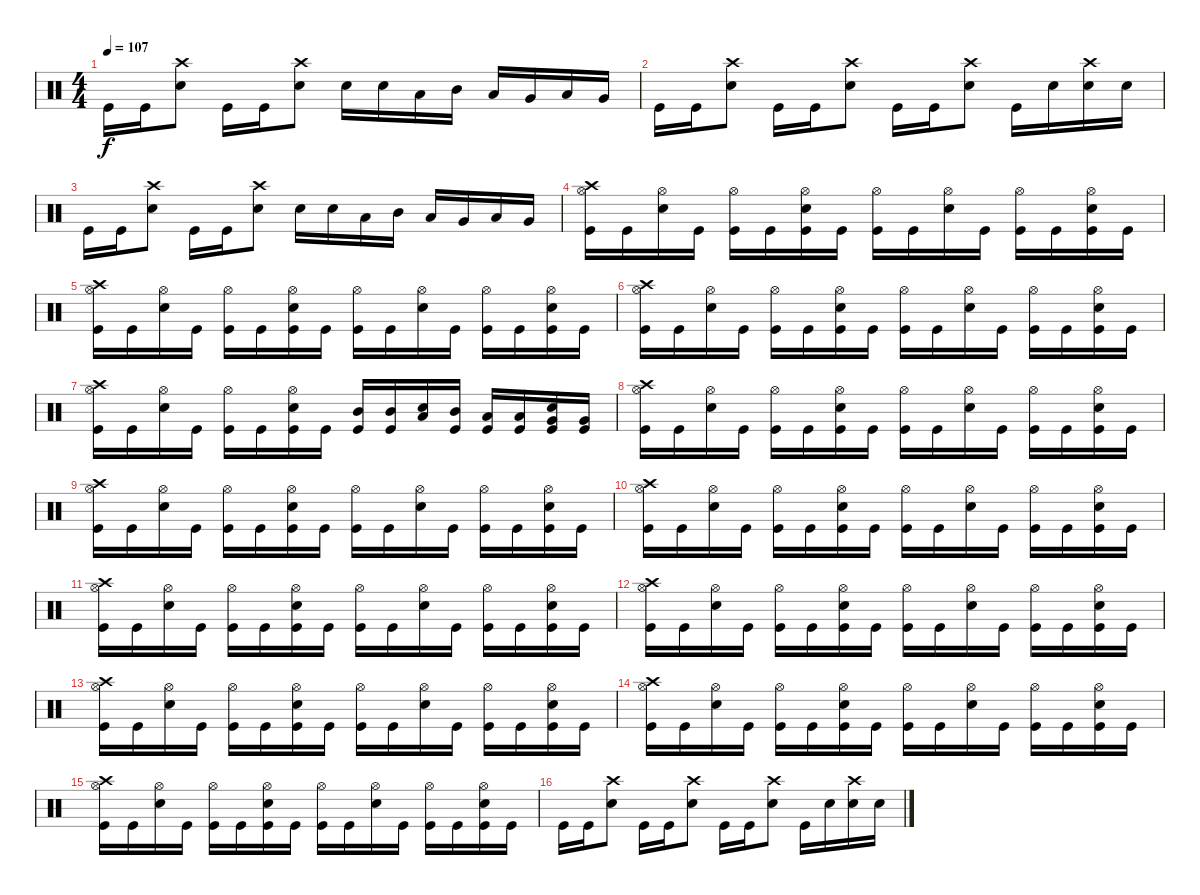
\track "" {instrument percussion}
\staff {score}
\articulation defaults
\ts (4 4)
\tempo 107
\clef neutral
\ks c "Kick (hit)".16{dy f} "Kick (hit)".16
("Crash high (hit)" "Snare (hit) 2").8 "Kick (hit)".16 "Kick (hit)".16 ("Crash high (hit)" "Snare (hit) 2").8 "Snare (hit) 2".16 "Snare (hit) 2".16 "Low Tom (hit)".16 "Mid Tom (hit)".16 "Low Tom (hit)".16 "Very Low Tom (hit)".16 "Low Tom (hit)".16 "Very Low Tom (hit)".16 |
"Kick (hit)".16 "Kick (hit)".16 ("Crash high (hit)" "Snare (hit) 2").8 "Kick (hit)".16 "Kick (hit)".16 ("Crash high (hit)" "Snare (hit) 2").8 "Kick (hit)".16 "Kick (hit)".16 ("Crash high (hit)" "Snare (hit) 2").8 "Kick (hit)".16 "Snare (hit) 2".16 ("Crash high (hit)" "Snare (hit) 2").16 "Snare (hit) 2".16 |
"Kick (hit)".16 "Kick (hit)".16 ("Crash high (hit)" "Snare (hit) 2").8 "Kick (hit)".16 "Kick (hit)".16 ("Crash high (hit)" "Snare (hit) 2").8 "Snare (hit) 2".16 "Snare (hit) 2".16 "Low Tom (hit)".16 "Mid Tom (hit)".16 "Low Tom (hit)".16 "Very Low Tom (hit)".16 "Low Tom (hit)".16 "Very Low Tom (hit)".16 |
("Hi-Hat (open)" "Crash high (hit)" "Kick (hit)").16 "Kick (hit)".16 ("Hi-Hat (open)" "Snare (hit) 2").16 "Kick (hit)".16 ("Hi-Hat (open)" "Kick (hit)").16 "Kick (hit)".16 ("Hi-Hat (open)" "Snare (hit) 2" "Kick (hit)").16 "Kick (hit)".16 ("Hi-Hat (open)" "Kick (hit)").16 "Kick (hit)".16 ("Hi-Hat (open)" "Snare (hit) 2").16 "Kick (hit)".16 ("Hi-Hat (open)" "Kick (hit)").16 "Kick (hit)".16 ("Hi-Hat (open)" "Snare (hit) 2" "Kick (hit)").16 "Kick (hit)".16 |
("Hi-Hat (open)" "Crash high (hit)" "Kick (hit)").16 "Kick (hit)".16 ("Hi-Hat (open)" "Snare (hit) 2").16 "Kick (hit)".16 ("Hi-Hat (open)" "Kick (hit)").16 "Kick (hit)".16 ("Hi-Hat (open)" "Snare (hit) 2" "Kick (hit)").16 "Kick (hit)".16 ("Hi-Hat (open)" "Kick (hit)").16 "Kick (hit)".16 ("Hi-Hat (open)" "Snare (hit) 2").16 "Kick (hit)".16 ("Hi-Hat (open)" "Kick (hit)").16 "Kick (hit)".16 ("Hi-Hat (open)" "Snare (hit) 2" "Kick (hit)").16 "Kick (hit)".16 |
("Hi-Hat (open)" "Crash high (hit)" "Kick (hit)").16 "Kick (hit)".16 ("Hi-Hat (open)" "Snare (hit) 2").16 "Kick (hit)".16 ("Hi-Hat (open)" "Kick (hit)").16 "Kick (hit)".16 ("Hi-Hat (open)" "Snare (hit) 2" "Kick (hit)").16 "Kick (hit)".16 ("Hi-Hat (open)" "Kick (hit)").16 "Kick (hit)".16 ("Hi-Hat (open)" "Snare (hit) 2").16 "Kick (hit)".16 ("Hi-Hat (open)" "Kick (hit)").16 "Kick (hit)".16 ("Hi-Hat (open)" "Snare (hit) 2" "Kick (hit)").16 "Kick (hit)".16 |
("Hi-Hat (open)" "Crash high (hit)" "Kick (hit)").16 "Kick (hit)".16 ("Hi-Hat (open)" "Snare (hit) 2").16 "Kick (hit)".16 ("Hi-Hat (open)" "Kick (hit)").16 "Kick (hit)".16 ("Hi-Hat (open)" "Snare (hit) 2" "Kick (hit)").16 "Kick (hit)".16 ("Mid Tom (hit)" "Kick (hit)").16 ("Mid Tom (hit)" "Kick (hit)").16 ("Low Tom (hit)" "Snare (hit) 2").16 ("Mid Tom (hit)" "Kick (hit)").16 ("Low Tom (hit)" "Kick (hit)").16 ("Low Tom (hit)" "Kick (hit)").16 ("Very Low Tom (hit)" "Snare (hit) 2" "Kick (hit)").16 ("Very Low Tom (hit)" "Kick (hit)").16 |
("Hi-Hat (open)" "Crash high (hit)" "Kick (hit)").16 "Kick (hit)".16 ("Hi-Hat (open)" "Snare (hit) 2").16 "Kick (hit)".16 ("Hi-Hat (open)" "Kick (hit)").16 "Kick (hit)".16 ("Hi-Hat (open)" "Snare (hit) 2" "Kick (hit)").16 "Kick (hit)".16 ("Hi-Hat (open)" "Kick (hit)").16 "Kick (hit)".16 ("Hi-Hat (open)" "Snare (hit) 2").16 "Kick (hit)".16 ("Hi-Hat (open)" "Kick (hit)").16 "Kick (hit)".16 ("Hi-Hat (open)" "Snare (hit) 2" "Kick (hit)").16 "Kick (hit)".16 |
("Hi-Hat (open)" "Crash high (hit)" "Kick (hit)").16 "Kick (hit)".16 ("Hi-Hat (open)" "Snare (hit) 2").16 "Kick (hit)".16 ("Hi-Hat (open)" "Kick (hit)").16 "Kick (hit)".16 ("Hi-Hat (open)" "Snare (hit) 2" "Kick (hit)").16 "Kick (hit)".16 ("Hi-Hat (open)" "Kick (hit)").16 "Kick (hit)".16 ("Hi-Hat (open)" "Snare (hit) 2").16 "Kick (hit)".16 ("Hi-Hat (open)" "Kick (hit)").16 "Kick (hit)".16 ("Hi-Hat (open)" "Snare (hit) 2" "Kick (hit)").16 "Kick (hit)".16 |
("Hi-Hat (open)" "Crash high (hit)" "Kick (hit)").16 "Kick (hit)".16 ("Hi-Hat (open)" "Snare (hit) 2").16 "Kick (hit)".16 ("Hi-Hat (open)" "Kick (hit)").16 "Kick (hit)".16 ("Hi-Hat (open)" "Snare (hit) 2" "Kick (hit)").16 "Kick (hit)".16 ("Hi-Hat (open)" "Kick (hit)").16 "Kick (hit)".16 ("Hi-Hat (open)" "Snare (hit) 2").16 "Kick (hit)".16 ("Hi-Hat (open)" "Kick (hit)").16 "Kick (hit)".16 ("Hi-Hat (open)" "Snare (hit) 2" "Kick (hit)").16 "Kick (hit)".16 |
("Hi-Hat (open)" "Crash high (hit)" "Kick (hit)").16 "Kick (hit)".16 ("Hi-Hat (open)" "Snare (hit) 2").16 "Kick (hit)".16 ("Hi-Hat (open)" "Kick (hit)").16 "Kick (hit)".16 ("Hi-Hat (open)" "Snare (hit) 2" "Kick (hit)").16 "Kick (hit)".16 ("Hi-Hat (open)" "Kick (hit)").16 "Kick (hit)".16 ("Hi-Hat (open)" "Snare (hit) 2").16 "Kick (hit)".16 ("Hi-Hat (open)" "Kick (hit)").16 "Kick (hit)".16 ("Hi-Hat (open)" "Snare (hit) 2" "Kick (hit)").16 "Kick (hit)".16 |
("Hi-Hat (open)" "Crash high (hit)" "Kick (hit)").16 "Kick (hit)".16 ("Hi-Hat (open)" "Snare (hit) 2").16 "Kick (hit)".16 ("Hi-Hat (open)" "Kick (hit)").16 "Kick (hit)".16 ("Hi-Hat (open)" "Snare (hit) 2" "Kick (hit)").16 "Kick (hit)".16 ("Hi-Hat (open)" "Kick (hit)").16 "Kick (hit)".16 ("Hi-Hat (open)" "Snare (hit) 2").16 "Kick (hit)".16 ("Hi-Hat (open)" "Kick (hit)").16 "Kick (hit)".16 ("Hi-Hat (open)" "Snare (hit) 2" "Kick (hit)").16 "Kick (hit)".16 |
("Hi-Hat (open)" "Crash high (hit)" "Kick (hit)").16 "Kick (hit)".16 ("Hi-Hat (open)" "Snare (hit) 2").16 "Kick (hit)".16 ("Hi-Hat (open)" "Kick (hit)").16 "Kick (hit)".16 ("Hi-Hat (open)" "Snare (hit) 2" "Kick (hit)").16 "Kick (hit)".16 ("Hi-Hat (open)" "Kick (hit)").16 "Kick (hit)".16 ("Hi-Hat (open)" "Snare (hit) 2").16 "Kick (hit)".16 ("Hi-Hat (open)" "Kick (hit)").16 "Kick (hit)".16 ("Hi-Hat (open)" "Snare (hit) 2" "Kick (hit)").16 "Kick (hit)".16 |
("Hi-Hat (open)" "Crash high (hit)" "Kick (hit)").16 "Kick (hit)".16 ("Hi-Hat (open)" "Snare (hit) 2").16 "Kick (hit)".16 ("Hi-Hat (open)" "Kick (hit)").16 "Kick (hit)".16 ("Hi-Hat (open)" "Snare (hit) 2" "Kick (hit)").16 "Kick (hit)".16 ("Hi-Hat (open)" "Kick (hit)").16 "Kick (hit)".16 ("Hi-Hat (open)" "Snare (hit) 2").16 "Kick (hit)".16 ("Hi-Hat (open)" "Kick (hit)").16 "Kick (hit)".16 ("Hi-Hat (open)" "Snare (hit) 2" "Kick (hit)").16 "Kick (hit)".16 |
("Hi-Hat (open)" "Crash high (hit)" "Kick (hit)").16 "Kick (hit)".16 ("Hi-Hat (open)" "Snare (hit) 2").16 "Kick (hit)".16 ("Hi-Hat (open)" "Kick (hit)").16 "Kick (hit)".16 ("Hi-Hat (open)" "Snare (hit) 2" "Kick (hit)").16 "Kick (hit)".16 ("Hi-Hat (open)" "Kick (hit)").16 "Kick (hit)".16 ("Hi-Hat (open)" "Snare (hit) 2").16 "Kick (hit)".16 ("Hi-Hat (open)" "Kick (hit)").16 "Kick (hit)".16 ("Hi-Hat (open)" "Snare (hit) 2" "Kick (hit)").16 "Kick (hit)".16 |
"Kick (hit)".16 "Kick (hit)".16 ("Crash high (hit)" "Snare (hit) 2").8 "Kick (hit)".16 "Kick (hit)".16 ("Crash high (hit)" "Snare (hit) 2").8 "Kick (hit)".16 "Kick (hit)".16 ("Crash high (hit)" "Snare (hit) 2").8 "Kick (hit)".16 "Snare (hit) 2".16 ("Crash high (hit)" "Snare (hit) 2").16 "Snare (hit) 2".16
